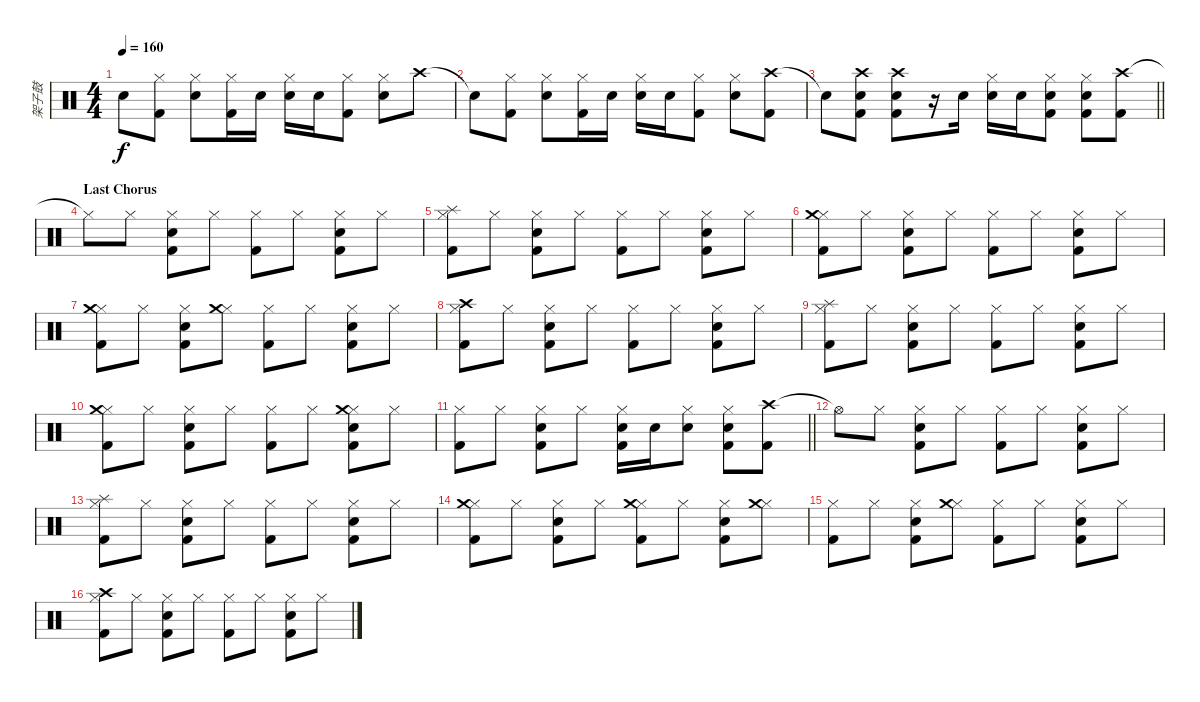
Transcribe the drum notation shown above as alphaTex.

\track ("架子鼓" "架子鼓") {instrument percussion}
\staff {score}
\articulation defaults
\ts (4 4)
\tempo 160
\clef neutral
\ks c "Snare (hit)"{t}.8{dy f}
("Hi-Hat (closed)" "Kick (hit) 2").8 ("Hi-Hat (closed)" "Snare (hit) 2").8 ("Hi-Hat (closed)" "Kick (hit) 2").16 "Snare (hit) 2".16 ("Hi-Hat (closed)" "Snare (hit) 2").16 "Snare (hit) 2".16 ("Hi-Hat (closed)" "Kick (hit) 2").8 ("Hi-Hat (closed)" "Snare (hit) 2").8 "Crash high (hit)".8 |
"Snare (hit)"{t}.8 ("Hi-Hat (closed)" "Kick (hit) 2").8 ("Hi-Hat (closed)" "Snare (hit) 2").8 ("Hi-Hat (closed)" "Kick (hit) 2").16 "Snare (hit) 2".16 ("Hi-Hat (closed)" "Snare (hit) 2").16 "Snare (hit) 2".16 ("Hi-Hat (closed)" "Kick (hit) 2").8 ("Hi-Hat (closed)" "Snare (hit) 2").8 ("Crash high (hit)" "Kick (hit) 2").8 |
\barLineRight lightlight "Snare (hit)"{t}.8
("Crash high (hit)" "Snare (hit) 2" "Kick (hit) 2").8 ("Crash high (hit)" "Snare (hit) 2" "Kick (hit) 2").8 r.16 "Snare (hit) 2".16 ("Hi-Hat (closed)" "Snare (hit) 2").16 "Snare (hit) 2".16 ("Hi-Hat (closed)" "Snare (hit) 2" "Kick (hit) 2").8 ("Hi-Hat (closed)" "Snare (hit) 2" "Kick (hit) 2").8 ("Crash high (hit)" "Kick (hit) 2").8 |
\section ("" "Last Chorus")
"Hi-Hat (closed)"{t}.8 "Hi-Hat (closed)".8 ("Hi-Hat (closed)" "Snare (hit) 2" "Kick (hit) 2").8 "Hi-Hat (closed)".8 ("Hi-Hat (closed)" "Kick (hit) 2").8 "Hi-Hat (closed)".8 ("Hi-Hat (closed)" "Snare (hit) 2" "Kick (hit) 2").8 "Hi-Hat (closed)".8 |
("Hi-Hat (closed)" "Splash (hit)" "Kick (hit) 2").8 "Hi-Hat (closed)".8 ("Hi-Hat (closed)" "Snare (hit) 2" "Kick (hit) 2").8 "Hi-Hat (closed)".8 ("Hi-Hat (closed)" "Kick (hit) 2").8 "Hi-Hat (closed)".8 ("Hi-Hat (closed)" "Snare (hit) 2" "Kick (hit) 2").8 "Hi-Hat (closed)".8 |
("Hi-Hat (closed)" "Crash medium (hit)" "Kick (hit) 2").8 "Hi-Hat (closed)".8 ("Hi-Hat (closed)" "Snare (hit) 2" "Kick (hit) 2").8 "Hi-Hat (closed)".8 ("Hi-Hat (closed)" "Kick (hit) 2").8 "Hi-Hat (closed)".8 ("Hi-Hat (closed)" "Snare (hit) 2" "Kick (hit) 2").8 "Hi-Hat (closed)".8 |
("Hi-Hat (closed)" "Crash medium (hit)" "Kick (hit) 2").8 "Hi-Hat (closed)".8 ("Hi-Hat (closed)" "Snare (hit) 2" "Kick (hit) 2").8 ("Hi-Hat (closed)" "Crash medium (hit)").8 ("Hi-Hat (closed)" "Kick (hit) 2").8 "Hi-Hat (closed)".8 ("Hi-Hat (closed)" "Snare (hit) 2" "Kick (hit) 2").8 "Hi-Hat (closed)".8 |
("Hi-Hat (closed)" "Crash high (hit)" "Kick (hit) 2").8 "Hi-Hat (closed)".8 ("Hi-Hat (closed)" "Snare (hit) 2" "Kick (hit) 2").8 "Hi-Hat (closed)".8 ("Hi-Hat (closed)" "Kick (hit) 2").8 "Hi-Hat (closed)".8 ("Hi-Hat (closed)" "Snare (hit) 2" "Kick (hit) 2").8 "Hi-Hat (closed)".8 |
("Hi-Hat (closed)" "Splash (hit)" "Kick (hit) 2").8 "Hi-Hat (closed)".8 ("Hi-Hat (closed)" "Snare (hit) 2" "Kick (hit) 2").8 "Hi-Hat (closed)".8 ("Hi-Hat (closed)" "Kick (hit) 2").8 "Hi-Hat (closed)".8 ("Hi-Hat (closed)" "Snare (hit) 2" "Kick (hit) 2").8 "Hi-Hat (closed)".8 |
("Hi-Hat (closed)" "Crash medium (hit)" "Kick (hit) 2").8 "Hi-Hat (closed)".8 ("Hi-Hat (closed)" "Snare (hit) 2" "Kick (hit) 2").8 "Hi-Hat (closed)".8 ("Hi-Hat (closed)" "Kick (hit) 2").8 "Hi-Hat (closed)".8 ("Hi-Hat (closed)" "Snare (hit) 2" "Crash medium (hit)" "Kick (hit) 2").8 "Hi-Hat (closed)".8 |
\barLineRight lightlight
("Hi-Hat (closed)" "Kick (hit) 2").8 "Hi-Hat (closed)".8 ("Hi-Hat (closed)" "Snare (hit) 2" "Kick (hit) 2").8 "Hi-Hat (closed)".8 ("Hi-Hat (closed)" "Snare (hit) 2" "Kick (hit) 2").16 "Snare (hit) 2".16 ("Hi-Hat (closed)" "Snare (hit) 2").8 ("Hi-Hat (closed)" "Snare (hit) 2" "Kick (hit) 2").8 ("Crash high (hit)" "Kick (hit) 2").8 |
"Hi-Hat (open)"{t}.8 "Hi-Hat (closed)".8 ("Hi-Hat (closed)" "Snare (hit) 2" "Kick (hit) 2").8 "Hi-Hat (closed)".8 ("Hi-Hat (closed)" "Kick (hit) 2").8 "Hi-Hat (closed)".8 ("Hi-Hat (closed)" "Snare (hit) 2" "Kick (hit) 2").8 "Hi-Hat (closed)".8 |
("Hi-Hat (closed)" "Splash (hit)" "Kick (hit) 2").8 "Hi-Hat (closed)".8 ("Hi-Hat (closed)" "Snare (hit) 2" "Kick (hit) 2").8 "Hi-Hat (closed)".8 ("Hi-Hat (closed)" "Kick (hit) 2").8 "Hi-Hat (closed)".8 ("Hi-Hat (closed)" "Snare (hit) 2" "Kick (hit) 2").8 "Hi-Hat (closed)".8 |
("Hi-Hat (closed)" "Crash medium (hit)" "Kick (hit) 2").8 "Hi-Hat (closed)".8 ("Hi-Hat (closed)" "Snare (hit) 2" "Kick (hit) 2").8 "Hi-Hat (closed)".8 ("Hi-Hat (closed)" "Crash medium (hit)" "Kick (hit) 2").8 "Hi-Hat (closed)".8 ("Hi-Hat (closed)" "Snare (hit) 2" "Kick (hit) 2").8 ("Hi-Hat (closed)" "Crash medium (hit)").8 |
("Hi-Hat (closed)" "Kick (hit) 2").8 "Hi-Hat (closed)".8 ("Hi-Hat (closed)" "Snare (hit) 2" "Kick (hit) 2").8 ("Hi-Hat (closed)" "Crash medium (hit)").8 ("Hi-Hat (closed)" "Kick (hit) 2").8 "Hi-Hat (closed)".8 ("Hi-Hat (closed)" "Snare (hit) 2" "Kick (hit) 2").8 "Hi-Hat (closed)".8 |
("Hi-Hat (closed)" "Crash high (hit)" "Kick (hit) 2").8 "Hi-Hat (closed)".8 ("Hi-Hat (closed)" "Snare (hit) 2" "Kick (hit) 2").8 "Hi-Hat (closed)".8 ("Hi-Hat (closed)" "Kick (hit) 2").8 "Hi-Hat (closed)".8 ("Hi-Hat (closed)" "Snare (hit) 2" "Kick (hit) 2").8 "Hi-Hat (closed)".8
